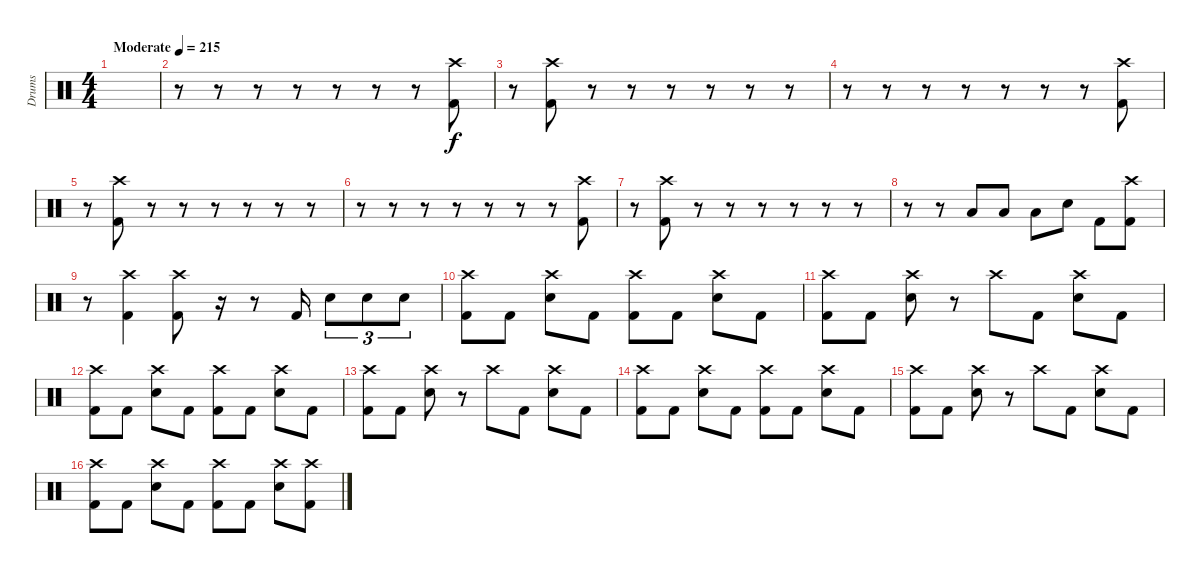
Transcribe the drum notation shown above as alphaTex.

\track ("Drums" "Drums") {instrument percussion}
\staff {score}
\articulation defaults
\ts (4 4)
\tempo (215 "Moderate")
\clef neutral
\ks c
|
r.8 r.8 r.8 r.8 r.8 r.8 r.8 ("Crash high (hit)" "Kick (hit) 2").8 |
r.8 ("Crash high (hit)" "Kick (hit) 2").8 r.8 r.8 r.8 r.8 r.8 r.8 |
r.8 r.8 r.8 r.8 r.8 r.8 r.8 ("Crash high (hit)" "Kick (hit) 2").8 |
r.8 ("Crash high (hit)" "Kick (hit) 2").8 r.8 r.8 r.8 r.8 r.8 r.8 |
r.8 r.8 r.8 r.8 r.8 r.8 r.8 ("Crash high (hit)" "Kick (hit) 2").8 |
r.8 ("Crash high (hit)" "Kick (hit) 2").8 r.8 r.8 r.8 r.8 r.8 r.8 |
r.8 r.8 "Low Floor Tom (hit)".8 "Low Floor Tom (hit)".8 "Low Floor Tom (hit)".8 "Electric Snare (hit)".8 "Kick (hit) 2".8 ("Crash high (hit)" "Kick (hit) 2").8 |
r.8 ("Crash high (hit)" "Kick (hit) 2").4 ("Crash high (hit)" "Kick (hit) 2").8 r.16 r.8 "Kick (hit) 2".16 "Electric Snare (hit)".8{tu (3 2)} "Electric Snare (hit)".8{tu (3 2)} "Electric Snare (hit)".8{tu (3 2)} |
("Crash high (hit)" "Kick (hit) 2").8 "Kick (hit) 2".8 ("Crash high (hit)" "Electric Snare (hit)").8 "Kick (hit) 2".8 ("Crash high (hit)" "Kick (hit) 2").8 "Kick (hit) 2".8 ("Crash high (hit)" "Electric Snare (hit)").8 "Kick (hit) 2".8 |
("Crash high (hit)" "Kick (hit) 2").8 "Kick (hit) 2".8 ("Crash high (hit)" "Electric Snare (hit)").8 r.8 "Crash high (hit)".8 "Kick (hit) 2".8 ("Crash high (hit)" "Electric Snare (hit)").8 "Kick (hit) 2".8 |
("Crash high (hit)" "Kick (hit) 2").8 "Kick (hit) 2".8 ("Crash high (hit)" "Electric Snare (hit)").8 "Kick (hit) 2".8 ("Crash high (hit)" "Kick (hit) 2").8 "Kick (hit) 2".8 ("Crash high (hit)" "Electric Snare (hit)").8 "Kick (hit) 2".8 |
("Crash high (hit)" "Kick (hit) 2").8 "Kick (hit) 2".8 ("Crash high (hit)" "Electric Snare (hit)").8 r.8 "Crash high (hit)".8 "Kick (hit) 2".8 ("Crash high (hit)" "Electric Snare (hit)").8 "Kick (hit) 2".8 |
("Crash high (hit)" "Kick (hit) 2").8 "Kick (hit) 2".8 ("Crash high (hit)" "Electric Snare (hit)").8 "Kick (hit) 2".8 ("Crash high (hit)" "Kick (hit) 2").8 "Kick (hit) 2".8 ("Crash high (hit)" "Electric Snare (hit)").8 "Kick (hit) 2".8 |
("Crash high (hit)" "Kick (hit) 2").8 "Kick (hit) 2".8 ("Crash high (hit)" "Electric Snare (hit)").8 r.8 "Crash high (hit)".8 "Kick (hit) 2".8 ("Crash high (hit)" "Electric Snare (hit)").8 "Kick (hit) 2".8 |
("Crash high (hit)" "Kick (hit) 2").8 "Kick (hit) 2".8 ("Crash high (hit)" "Electric Snare (hit)").8 "Kick (hit) 2".8 ("Crash high (hit)" "Kick (hit) 2").8 "Kick (hit) 2".8 ("Crash high (hit)" "Electric Snare (hit)").8 ("Crash high (hit)" "Kick (hit) 2").8
